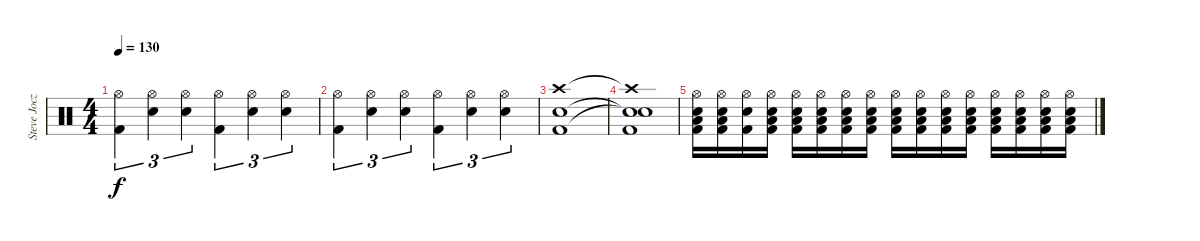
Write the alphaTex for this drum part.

\track ("Steve Jocz" "Steve Jocz") {instrument percussion}
\staff {score}
\articulation defaults
\ts (4 4)
\tempo 130
\clef neutral
\ks c
("Hi-Hat (open)" "Kick (hit) 2").4{tu (3 2) dy f} ("Hi-Hat (open)" "Electric Snare (hit)").4{tu (3 2)} ("Hi-Hat (open)" "Electric Snare (hit)").4{tu (3 2)} ("Hi-Hat (open)" "Kick (hit) 2").4{tu (3 2)} ("Hi-Hat (open)" "Electric Snare (hit)").4{tu (3 2)} ("Hi-Hat (open)" "Electric Snare (hit)").4{tu (3 2)} |
("Hi-Hat (open)" "Kick (hit) 2").4{tu (3 2)} ("Hi-Hat (open)" "Electric Snare (hit)").4{tu (3 2)} ("Hi-Hat (open)" "Electric Snare (hit)").4{tu (3 2)} ("Hi-Hat (open)" "Kick (hit) 2").4{tu (3 2)} ("Hi-Hat (open)" "Electric Snare (hit)").4{tu (3 2)} ("Hi-Hat (open)" "Electric Snare (hit)").4{tu (3 2)} |
("Crash high (hit)" "Electric Snare (hit)" "Kick (hit) 2").1 |
("Crash high (hit)"{t} "Electric Snare (hit)"{t} "Snare (hit)"{t} "Kick (hit) 2").1 |
("Low Floor Tom (hit)" "Electric Snare (hit)" "Kick (hit) 2" "Hi-Hat (open)").16 ("Low Floor Tom (hit)" "Electric Snare (hit)" "Kick (hit) 2" "Hi-Hat (open)").16 ("Hi-Hat (open)" "Electric Snare (hit)" "Kick (hit) 2").16 ("Low Floor Tom (hit)" "Electric Snare (hit)" "Kick (hit) 2" "Hi-Hat (open)").16 ("Low Floor Tom (hit)" "Electric Snare (hit)" "Kick (hit) 2" "Hi-Hat (open)").16 ("Low Floor Tom (hit)" "Electric Snare (hit)" "Kick (hit) 2" "Hi-Hat (open)").16 ("Low Floor Tom (hit)" "Electric Snare (hit)" "Kick (hit) 2" "Hi-Hat (open)").16 ("Low Floor Tom (hit)" "Electric Snare (hit)" "Kick (hit) 2" "Hi-Hat (open)").16 ("Low Floor Tom (hit)" "Electric Snare (hit)" "Kick (hit) 2" "Hi-Hat (open)").16 ("Low Floor Tom (hit)" "Electric Snare (hit)" "Kick (hit) 2" "Hi-Hat (open)").16 ("Low Floor Tom (hit)" "Electric Snare (hit)" "Kick (hit) 2" "Hi-Hat (open)").16 ("Low Floor Tom (hit)" "Electric Snare (hit)" "Kick (hit) 2" "Hi-Hat (open)").16 ("Low Floor Tom (hit)" "Electric Snare (hit)" "Kick (hit) 2" "Hi-Hat (open)").16 ("Low Floor Tom (hit)" "Electric Snare (hit)" "Kick (hit) 2" "Hi-Hat (open)").16 ("Low Floor Tom (hit)" "Electric Snare (hit)" "Kick (hit) 2" "Hi-Hat (open)").16 ("Low Floor Tom (hit)" "Electric Snare (hit)" "Kick (hit) 2" "Hi-Hat (open)").16
